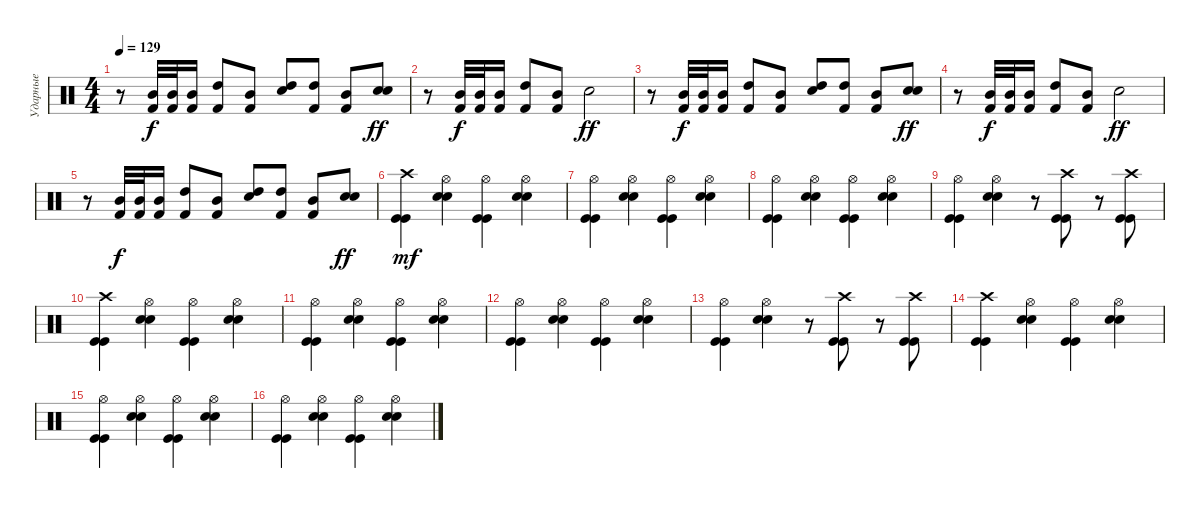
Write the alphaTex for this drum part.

\track ("Ударные" "Ударные") {instrument percussion}
\staff {score}
\articulation defaults
\ts (4 4)
\tempo 129
\clef neutral
\ks c
r.8{dy ff} ("Kick (hit) 2" "Mid Tom (hit)").32{dy f} ("Kick (hit) 2" "Mid Tom (hit)").32 ("Kick (hit) 2" "Mid Tom (hit)").16 ("Kick (hit) 2" "High Tom (hit)").8 ("Kick (hit) 2" "Mid Tom (hit)").8 ("Electric Snare (hit)" "High Tom (hit)").8 ("High Tom (hit)" "Kick (hit) 2").8 ("Mid Tom (hit)" "Kick (hit) 2").8 ("Electric Snare (hit)" "Electric Snare (hit)").8{dy ff} |
r.8 ("Kick (hit) 2" "Mid Tom (hit)").32{dy f} ("Kick (hit) 2" "Mid Tom (hit)").32 ("Kick (hit) 2" "Mid Tom (hit)").16 ("Kick (hit) 2" "High Tom (hit)").8 ("Kick (hit) 2" "Mid Tom (hit)").8 "Electric Snare (hit)".2{dy ff} |
r.8 ("Kick (hit) 2" "Mid Tom (hit)").32{dy f} ("Kick (hit) 2" "Mid Tom (hit)").32 ("Kick (hit) 2" "Mid Tom (hit)").16 ("Kick (hit) 2" "High Tom (hit)").8 ("Kick (hit) 2" "Mid Tom (hit)").8 ("Electric Snare (hit)" "High Tom (hit)").8 ("High Tom (hit)" "Kick (hit) 2").8 ("Mid Tom (hit)" "Kick (hit) 2").8 ("Electric Snare (hit)" "Electric Snare (hit)").8{dy ff} |
r.8 ("Kick (hit) 2" "Mid Tom (hit)").32{dy f} ("Kick (hit) 2" "Mid Tom (hit)").32 ("Kick (hit) 2" "Mid Tom (hit)").16 ("Kick (hit) 2" "High Tom (hit)").8 ("Kick (hit) 2" "Mid Tom (hit)").8 "Electric Snare (hit)".2{dy ff} |
r.8 ("Kick (hit) 2" "Mid Tom (hit)").32{dy f} ("Kick (hit) 2" "Mid Tom (hit)").32 ("Kick (hit) 2" "Mid Tom (hit)").16 ("Kick (hit) 2" "High Tom (hit)").8 ("Kick (hit) 2" "Mid Tom (hit)").8 ("Electric Snare (hit)" "High Tom (hit)").8 ("High Tom (hit)" "Kick (hit) 2").8 ("Mid Tom (hit)" "Kick (hit) 2").8 ("Electric Snare (hit)" "Electric Snare (hit)").8{dy ff} |
("Crash high (hit)" "Kick (hit)" "Kick (hit)").4{dy mf} ("Hi-Hat (open)" "Snare (hit) 2" "Snare (hit) 2").4 ("Hi-Hat (open)" "Kick (hit)" "Kick (hit)").4 ("Hi-Hat (open)" "Snare (hit) 2" "Snare (hit) 2").4 |
("Hi-Hat (open)" "Kick (hit)" "Kick (hit)").4 ("Hi-Hat (open)" "Snare (hit) 2" "Snare (hit) 2").4 ("Hi-Hat (open)" "Kick (hit)" "Kick (hit)").4 ("Hi-Hat (open)" "Snare (hit) 2" "Snare (hit) 2").4 |
("Hi-Hat (open)" "Kick (hit)" "Kick (hit)").4 ("Hi-Hat (open)" "Snare (hit) 2" "Snare (hit) 2").4 ("Hi-Hat (open)" "Kick (hit)" "Kick (hit)").4 ("Hi-Hat (open)" "Snare (hit) 2" "Snare (hit) 2").4 |
("Hi-Hat (open)" "Kick (hit)" "Kick (hit)").4 ("Hi-Hat (open)" "Snare (hit) 2" "Snare (hit) 2").4 r.8 ("Crash high (hit)" "Kick (hit)" "Kick (hit)").8 r.8 ("Crash high (hit)" "Kick (hit)" "Kick (hit)").8 |
("Crash high (hit)" "Kick (hit)" "Kick (hit)").4 ("Hi-Hat (open)" "Snare (hit) 2" "Snare (hit) 2").4 ("Hi-Hat (open)" "Kick (hit)" "Kick (hit)").4 ("Hi-Hat (open)" "Snare (hit) 2" "Snare (hit) 2").4 |
("Hi-Hat (open)" "Kick (hit)" "Kick (hit)").4 ("Hi-Hat (open)" "Snare (hit) 2" "Snare (hit) 2").4 ("Hi-Hat (open)" "Kick (hit)" "Kick (hit)").4 ("Hi-Hat (open)" "Snare (hit) 2" "Snare (hit) 2").4 |
("Hi-Hat (open)" "Kick (hit)" "Kick (hit)").4 ("Hi-Hat (open)" "Snare (hit) 2" "Snare (hit) 2").4 ("Hi-Hat (open)" "Kick (hit)" "Kick (hit)").4 ("Hi-Hat (open)" "Snare (hit) 2" "Snare (hit) 2").4 |
("Hi-Hat (open)" "Kick (hit)" "Kick (hit)").4 ("Hi-Hat (open)" "Snare (hit) 2" "Snare (hit) 2").4 r.8 ("Crash high (hit)" "Kick (hit)" "Kick (hit)").8 r.8 ("Crash high (hit)" "Kick (hit)" "Kick (hit)").8 |
("Crash high (hit)" "Kick (hit)" "Kick (hit)").4 ("Hi-Hat (open)" "Snare (hit) 2" "Snare (hit) 2").4 ("Hi-Hat (open)" "Kick (hit)" "Kick (hit)").4 ("Hi-Hat (open)" "Snare (hit) 2" "Snare (hit) 2").4 |
("Hi-Hat (open)" "Kick (hit)" "Kick (hit)").4 ("Hi-Hat (open)" "Snare (hit) 2" "Snare (hit) 2").4 ("Hi-Hat (open)" "Kick (hit)" "Kick (hit)").4 ("Hi-Hat (open)" "Snare (hit) 2" "Snare (hit) 2").4 |
("Hi-Hat (open)" "Kick (hit)" "Kick (hit)").4 ("Hi-Hat (open)" "Snare (hit) 2" "Snare (hit) 2").4 ("Hi-Hat (open)" "Kick (hit)" "Kick (hit)").4 ("Hi-Hat (open)" "Snare (hit) 2" "Snare (hit) 2").4
